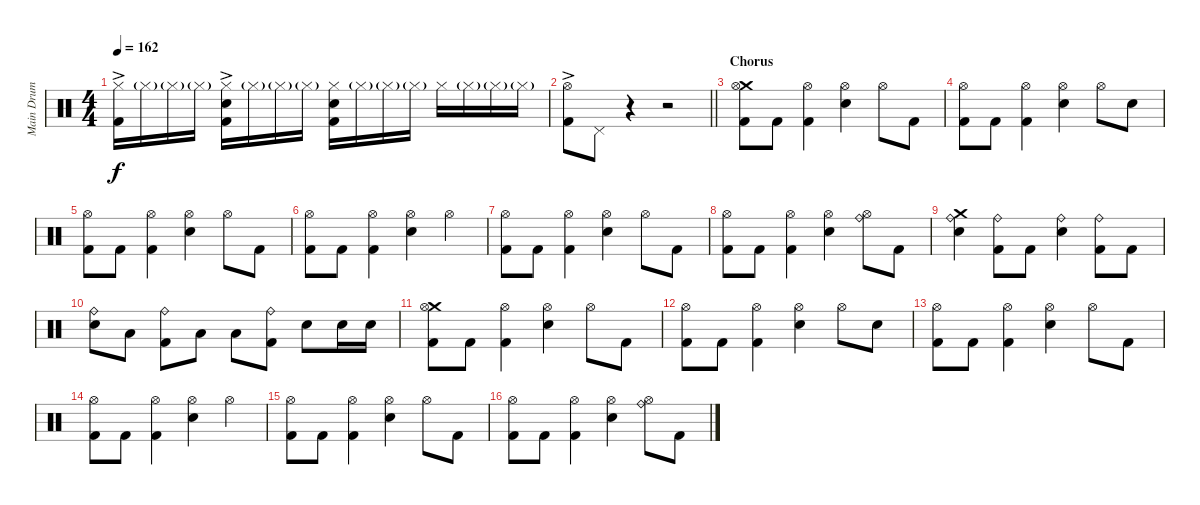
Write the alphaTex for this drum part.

\track ("Main Drum Track" "Main Drum ") {instrument percussion}
\staff {score}
\articulation defaults
\ts (4 4)
\tempo 162
\clef neutral
\ks c
("Hi-Hat (closed)"{ac} "Kick (hit) 2").16{dy f} "Hi-Hat (closed)"{g}.16 "Hi-Hat (closed)"{g}.16 "Hi-Hat (closed)"{g}.16 ("Hand Clap (hit)" "Hi-Hat (closed)"{ac} "Kick (hit) 2").16 "Hi-Hat (closed)"{g}.16 "Hi-Hat (closed)"{g}.16 "Hi-Hat (closed)"{g}.16 ("Hand Clap (hit)" "Hi-Hat (closed)" "Kick (hit) 2").16 "Hi-Hat (closed)"{g}.16 "Hi-Hat (closed)"{g}.16 "Hi-Hat (closed)"{g}.16 "Hi-Hat (closed)".16 "Hi-Hat (closed)"{g}.16 "Hi-Hat (closed)"{g}.16 "Hi-Hat (closed)"{g}.16 |
\barLineRight lightlight
("Hi-Hat (open)"{ac} "Kick (hit) 2").8 "Pedal Hi-Hat (hit)".8 r.4 r.2 |
\section ("" "Chorus")
("Crash medium (hit)" "Hi-Hat (open)" "Kick (hit) 2").8 "Kick (hit) 2".8 ("Hi-Hat (open)" "Kick (hit) 2").4 ("Hi-Hat (open)" "Electric Snare (hit)").4 "Hi-Hat (open)".8 "Kick (hit) 2".8 |
("Hi-Hat (open)" "Kick (hit) 2").8 "Kick (hit) 2".8 ("Hi-Hat (open)" "Kick (hit) 2").4 ("Hi-Hat (open)" "Electric Snare (hit)").4 "Hi-Hat (open)".8 "Electric Snare (hit)".8 |
("Hi-Hat (open)" "Kick (hit) 2").8 "Kick (hit) 2".8 ("Hi-Hat (open)" "Kick (hit) 2").4 ("Hi-Hat (open)" "Electric Snare (hit)").4 "Hi-Hat (open)".8 "Kick (hit) 2".8 |
("Hi-Hat (open)" "Kick (hit) 2").8 "Kick (hit) 2".8 ("Hi-Hat (open)" "Kick (hit) 2").4 ("Hi-Hat (open)" "Electric Snare (hit)").4 "Hi-Hat (open)".4 |
("Hi-Hat (open)" "Kick (hit) 2").8 "Kick (hit) 2".8 ("Hi-Hat (open)" "Kick (hit) 2").4 ("Hi-Hat (open)" "Electric Snare (hit)").4 "Hi-Hat (open)".8 "Kick (hit) 2".8 |
("Hi-Hat (open)" "Kick (hit) 2").8 "Kick (hit) 2".8 ("Hi-Hat (open)" "Kick (hit) 2").4 ("Hi-Hat (open)" "Electric Snare (hit)").4 ("Ride (bell)" "Hi-Hat (open)").8 "Kick (hit) 2".8 |
("Ride (bell)" "Crash medium (hit)" "Electric Snare (hit)").4 ("Ride (bell)" "Kick (hit) 2").8 "Kick (hit) 2".8 ("Ride (bell)" "Electric Snare (hit)").4 ("Ride (bell)" "Kick (hit) 2").8 "Kick (hit) 2".8 |
("Ride (bell)" "Electric Snare (hit)").8 "Low Floor Tom (hit)".8 ("Ride (bell)" "Kick (hit) 2").8 "Low Tom (hit)".8 "Low Floor Tom (hit)".8 ("Ride (bell)" "Kick (hit) 2").8 "Electric Snare (hit)".8 "Electric Snare (hit)".16 "Electric Snare (hit)".16 |
("Crash medium (hit)" "Hi-Hat (open)" "Kick (hit) 2").8 "Kick (hit) 2".8 ("Hi-Hat (open)" "Kick (hit) 2").4 ("Hi-Hat (open)" "Electric Snare (hit)").4 "Hi-Hat (open)".8 "Kick (hit) 2".8 |
("Hi-Hat (open)" "Kick (hit) 2").8 "Kick (hit) 2".8 ("Hi-Hat (open)" "Kick (hit) 2").4 ("Hi-Hat (open)" "Electric Snare (hit)").4 "Hi-Hat (open)".8 "Electric Snare (hit)".8 |
("Hi-Hat (open)" "Kick (hit) 2").8 "Kick (hit) 2".8 ("Hi-Hat (open)" "Kick (hit) 2").4 ("Hi-Hat (open)" "Electric Snare (hit)").4 "Hi-Hat (open)".8 "Kick (hit) 2".8 |
("Hi-Hat (open)" "Kick (hit) 2").8 "Kick (hit) 2".8 ("Hi-Hat (open)" "Kick (hit) 2").4 ("Hi-Hat (open)" "Electric Snare (hit)").4 "Hi-Hat (open)".4 |
("Hi-Hat (open)" "Kick (hit) 2").8 "Kick (hit) 2".8 ("Hi-Hat (open)" "Kick (hit) 2").4 ("Hi-Hat (open)" "Electric Snare (hit)").4 "Hi-Hat (open)".8 "Kick (hit) 2".8 |
("Hi-Hat (open)" "Kick (hit) 2").8 "Kick (hit) 2".8 ("Hi-Hat (open)" "Kick (hit) 2").4 ("Hi-Hat (open)" "Electric Snare (hit)").4 ("Ride (bell)" "Hi-Hat (open)").8 "Kick (hit) 2".8
